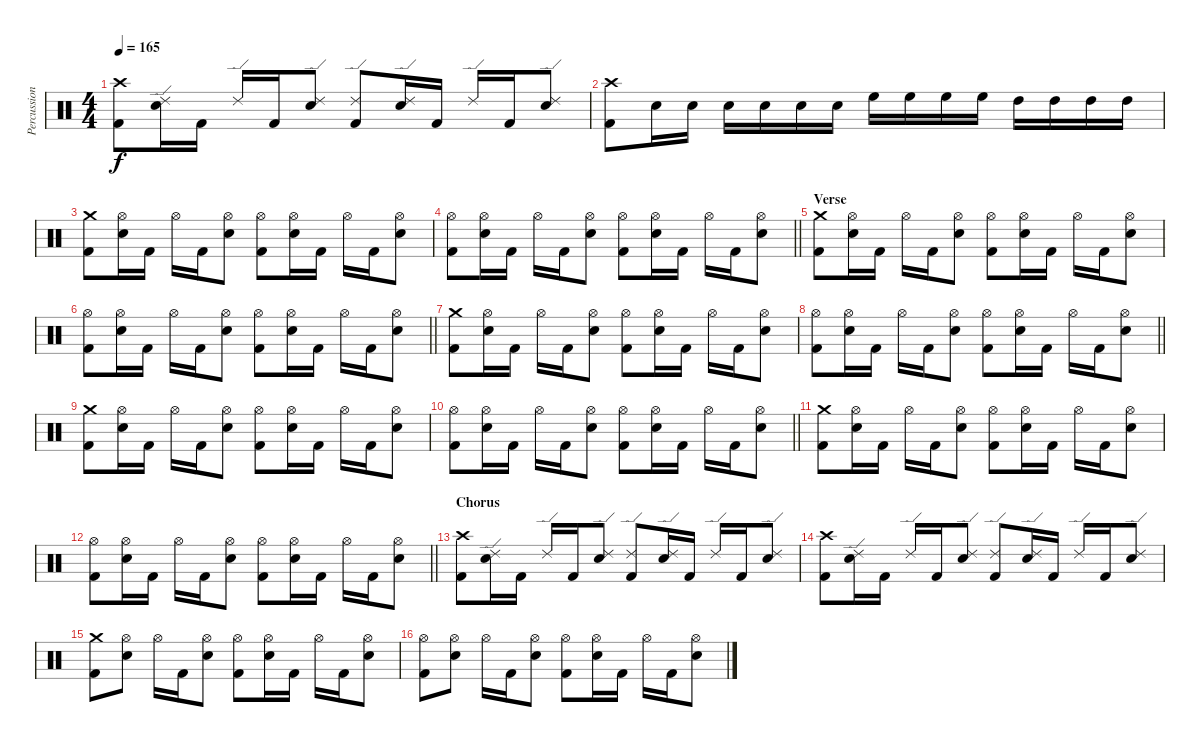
\track ("Percussion" "Percussion") {instrument percussion}
\staff {score}
\articulation defaults
\ts (4 4)
\tempo 165
\clef neutral
\ks c
("Crash high (hit)" "Kick (hit) 2").8{dy f} ("Ride (edge) 2" "Electric Snare (hit)").16 "Kick (hit) 2".16 "Ride (edge) 2".16 "Kick (hit) 2".16 ("Ride (edge) 2" "Electric Snare (hit)").8 ("Ride (edge) 2" "Kick (hit) 2").8 ("Ride (edge) 2" "Electric Snare (hit)").16 "Kick (hit) 2".16 "Ride (edge) 2".16 "Kick (hit) 2".16 ("Ride (edge) 2" "Electric Snare (hit)").8 |
("Crash high (hit)" "Kick (hit) 2").8 "Electric Snare (hit)".16 "Electric Snare (hit)".16 "Electric Snare (hit)".16 "Electric Snare (hit)".16 "Electric Snare (hit)".16 "Electric Snare (hit)".16 "High Floor Tom (hit)".16 "High Floor Tom (hit)".16 "High Floor Tom (hit)".16 "High Floor Tom (hit)".16 "High Tom (hit)".16 "High Tom (hit)".16 "High Tom (hit)".16 "High Tom (hit)".16 |
("Crash medium (hit)" "Kick (hit) 2").8 ("Hi-Hat (open)" "Electric Snare (hit)").16 "Kick (hit) 2".16 "Hi-Hat (open)".16 "Kick (hit) 2".16 ("Hi-Hat (open)" "Electric Snare (hit)").8 ("Hi-Hat (open)" "Kick (hit) 2").8 ("Hi-Hat (open)" "Electric Snare (hit)").16 "Kick (hit) 2".16 "Hi-Hat (open)".16 "Kick (hit) 2".16 ("Hi-Hat (open)" "Electric Snare (hit)").8 |
\barLineRight lightlight
("Hi-Hat (open)" "Kick (hit) 2").8 ("Hi-Hat (open)" "Electric Snare (hit)").16 "Kick (hit) 2".16 "Hi-Hat (open)".16 "Kick (hit) 2".16 ("Hi-Hat (open)" "Electric Snare (hit)").8 ("Hi-Hat (open)" "Kick (hit) 2").8 ("Hi-Hat (open)" "Electric Snare (hit)").16 "Kick (hit) 2".16 "Hi-Hat (open)".16 "Kick (hit) 2".16 ("Hi-Hat (open)" "Electric Snare (hit)").8 |
\section ("" "Verse")
("Crash medium (hit)" "Kick (hit) 2").8 ("Hi-Hat (open)" "Electric Snare (hit)").16 "Kick (hit) 2".16 "Hi-Hat (open)".16 "Kick (hit) 2".16 ("Hi-Hat (open)" "Electric Snare (hit)").8 ("Hi-Hat (open)" "Kick (hit) 2").8 ("Hi-Hat (open)" "Electric Snare (hit)").16 "Kick (hit) 2".16 "Hi-Hat (open)".16 "Kick (hit) 2".16 ("Hi-Hat (open)" "Electric Snare (hit)").8 |
\barLineRight lightlight
("Hi-Hat (open)" "Kick (hit) 2").8 ("Hi-Hat (open)" "Electric Snare (hit)").16 "Kick (hit) 2".16 "Hi-Hat (open)".16 "Kick (hit) 2".16 ("Hi-Hat (open)" "Electric Snare (hit)").8 ("Hi-Hat (open)" "Kick (hit) 2").8 ("Hi-Hat (open)" "Electric Snare (hit)").16 "Kick (hit) 2".16 "Hi-Hat (open)".16 "Kick (hit) 2".16 ("Hi-Hat (open)" "Electric Snare (hit)").8 |
("Crash medium (hit)" "Kick (hit) 2").8 ("Hi-Hat (open)" "Electric Snare (hit)").16 "Kick (hit) 2".16 "Hi-Hat (open)".16 "Kick (hit) 2".16 ("Hi-Hat (open)" "Electric Snare (hit)").8 ("Hi-Hat (open)" "Kick (hit) 2").8 ("Hi-Hat (open)" "Electric Snare (hit)").16 "Kick (hit) 2".16 "Hi-Hat (open)".16 "Kick (hit) 2".16 ("Hi-Hat (open)" "Electric Snare (hit)").8 |
\barLineRight lightlight
("Hi-Hat (open)" "Kick (hit) 2").8 ("Hi-Hat (open)" "Electric Snare (hit)").16 "Kick (hit) 2".16 "Hi-Hat (open)".16 "Kick (hit) 2".16 ("Hi-Hat (open)" "Electric Snare (hit)").8 ("Hi-Hat (open)" "Kick (hit) 2").8 ("Hi-Hat (open)" "Electric Snare (hit)").16 "Kick (hit) 2".16 "Hi-Hat (open)".16 "Kick (hit) 2".16 ("Hi-Hat (open)" "Electric Snare (hit)").8 |
("Crash medium (hit)" "Kick (hit) 2").8 ("Hi-Hat (open)" "Electric Snare (hit)").16 "Kick (hit) 2".16 "Hi-Hat (open)".16 "Kick (hit) 2".16 ("Hi-Hat (open)" "Electric Snare (hit)").8 ("Hi-Hat (open)" "Kick (hit) 2").8 ("Hi-Hat (open)" "Electric Snare (hit)").16 "Kick (hit) 2".16 "Hi-Hat (open)".16 "Kick (hit) 2".16 ("Hi-Hat (open)" "Electric Snare (hit)").8 |
\barLineRight lightlight
("Hi-Hat (open)" "Kick (hit) 2").8 ("Hi-Hat (open)" "Electric Snare (hit)").16 "Kick (hit) 2".16 "Hi-Hat (open)".16 "Kick (hit) 2".16 ("Hi-Hat (open)" "Electric Snare (hit)").8 ("Hi-Hat (open)" "Kick (hit) 2").8 ("Hi-Hat (open)" "Electric Snare (hit)").16 "Kick (hit) 2".16 "Hi-Hat (open)".16 "Kick (hit) 2".16 ("Hi-Hat (open)" "Electric Snare (hit)").8 |
("Crash medium (hit)" "Kick (hit) 2").8 ("Hi-Hat (open)" "Electric Snare (hit)").16 "Kick (hit) 2".16 "Hi-Hat (open)".16 "Kick (hit) 2".16 ("Hi-Hat (open)" "Electric Snare (hit)").8 ("Hi-Hat (open)" "Kick (hit) 2").8 ("Hi-Hat (open)" "Electric Snare (hit)").16 "Kick (hit) 2".16 "Hi-Hat (open)".16 "Kick (hit) 2".16 ("Hi-Hat (open)" "Electric Snare (hit)").8 |
\barLineRight lightlight
("Hi-Hat (open)" "Kick (hit) 2").8 ("Hi-Hat (open)" "Electric Snare (hit)").16 "Kick (hit) 2".16 "Hi-Hat (open)".16 "Kick (hit) 2".16 ("Hi-Hat (open)" "Electric Snare (hit)").8 ("Hi-Hat (open)" "Kick (hit) 2").8 ("Hi-Hat (open)" "Electric Snare (hit)").16 "Kick (hit) 2".16 "Hi-Hat (open)".16 "Kick (hit) 2".16 ("Hi-Hat (open)" "Electric Snare (hit)").8 |
\section ("" "Chorus")
("Crash high (hit)" "Kick (hit) 2").8 ("Ride (edge) 2" "Electric Snare (hit)").16 "Kick (hit) 2".16 "Ride (edge) 2".16 "Kick (hit) 2".16 ("Ride (edge) 2" "Electric Snare (hit)").8 ("Ride (edge) 2" "Kick (hit) 2").8 ("Ride (edge) 2" "Electric Snare (hit)").16 "Kick (hit) 2".16 "Ride (edge) 2".16 "Kick (hit) 2".16 ("Ride (edge) 2" "Electric Snare (hit)").8 |
("Crash high (hit)" "Kick (hit) 2").8 ("Ride (edge) 2" "Electric Snare (hit)").16 "Kick (hit) 2".16 "Ride (edge) 2".16 "Kick (hit) 2".16 ("Ride (edge) 2" "Electric Snare (hit)").8 ("Ride (edge) 2" "Kick (hit) 2").8 ("Ride (edge) 2" "Electric Snare (hit)").16 "Kick (hit) 2".16 "Ride (edge) 2".16 "Kick (hit) 2".16 ("Ride (edge) 2" "Electric Snare (hit)").8 |
("Crash medium (hit)" "Kick (hit) 2").8 ("Hi-Hat (open)" "Electric Snare (hit)").8 "Hi-Hat (open)".16 "Kick (hit) 2".16 ("Hi-Hat (open)" "Electric Snare (hit)").8 ("Hi-Hat (open)" "Kick (hit) 2").8 ("Hi-Hat (open)" "Electric Snare (hit)").16 "Kick (hit) 2".16 "Hi-Hat (open)".16 "Kick (hit) 2".16 ("Hi-Hat (open)" "Electric Snare (hit)").8 |
("Hi-Hat (open)" "Kick (hit) 2").8 ("Hi-Hat (open)" "Electric Snare (hit)").8 "Hi-Hat (open)".16 "Kick (hit) 2".16 ("Hi-Hat (open)" "Electric Snare (hit)").8 ("Hi-Hat (open)" "Kick (hit) 2").8 ("Hi-Hat (open)" "Electric Snare (hit)").16 "Kick (hit) 2".16 "Hi-Hat (open)".16 "Kick (hit) 2".16 ("Hi-Hat (open)" "Electric Snare (hit)").8
